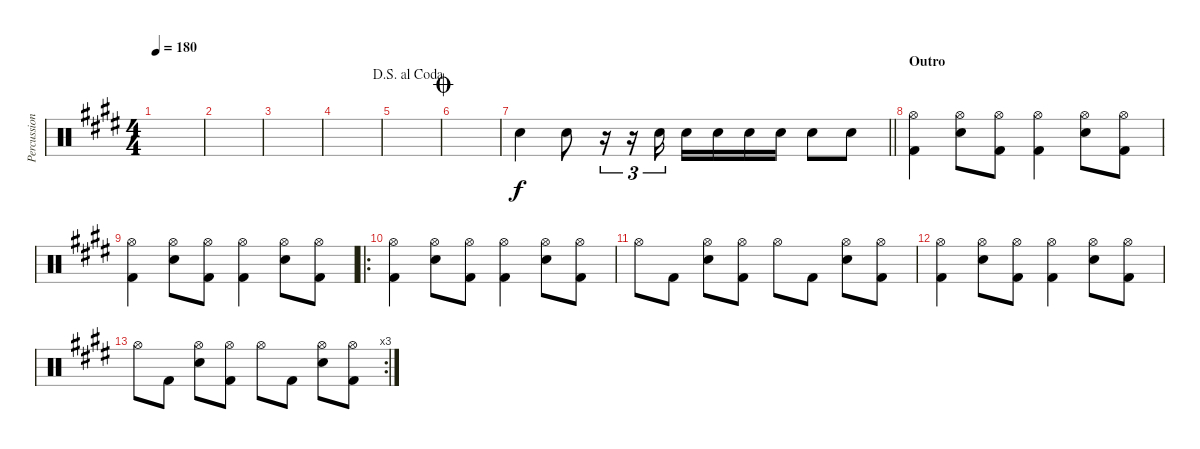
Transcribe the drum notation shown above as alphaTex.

\track ("Percussion" "Percussion") {instrument percussion}
\staff {score}
\articulation defaults
\ts (4 4)
\tempo 180
\clef neutral
\ks c#minor
|
|
|
|
\jump dalsegnoalcoda
|
\jump coda
|
\barLineRight lightlight "Snare (hit) 2".4 "Snare (hit) 2".8
r.16{tu (3 2)} r.16{tu (3 2)} "Snare (hit) 2".16{tu (3 2)} "Snare (hit) 2".16 "Snare (hit) 2".16 "Snare (hit) 2".16 "Snare (hit) 2".16 "Snare (hit) 2".8 "Snare (hit) 2".8 |
\section ("" "Outro")
("Hi-Hat (open)" "Kick (hit) 2").4 ("Hi-Hat (open)" "Snare (hit) 2").8 ("Hi-Hat (open)" "Kick (hit) 2").8 ("Hi-Hat (open)" "Kick (hit) 2").4 ("Hi-Hat (open)" "Snare (hit) 2").8 ("Hi-Hat (open)" "Kick (hit) 2").8 |
("Hi-Hat (open)" "Kick (hit) 2").4 ("Hi-Hat (open)" "Snare (hit) 2").8 ("Hi-Hat (open)" "Kick (hit) 2").8 ("Hi-Hat (open)" "Kick (hit) 2").4 ("Hi-Hat (open)" "Snare (hit) 2").8 ("Hi-Hat (open)" "Kick (hit) 2").8 |
\ro
("Hi-Hat (open)" "Kick (hit) 2").4 ("Hi-Hat (open)" "Snare (hit) 2").8 ("Hi-Hat (open)" "Kick (hit) 2").8 ("Hi-Hat (open)" "Kick (hit) 2").4 ("Hi-Hat (open)" "Snare (hit) 2").8 ("Hi-Hat (open)" "Kick (hit) 2").8 |
"Hi-Hat (open)".8 "Kick (hit) 2".8 ("Hi-Hat (open)" "Snare (hit) 2").8 ("Hi-Hat (open)" "Kick (hit) 2").8 "Hi-Hat (open)".8 "Kick (hit) 2".8 ("Hi-Hat (open)" "Snare (hit) 2").8 ("Hi-Hat (open)" "Kick (hit) 2").8 |
("Hi-Hat (open)" "Kick (hit) 2").4 ("Hi-Hat (open)" "Snare (hit) 2").8 ("Hi-Hat (open)" "Kick (hit) 2").8 ("Hi-Hat (open)" "Kick (hit) 2").4 ("Hi-Hat (open)" "Snare (hit) 2").8 ("Hi-Hat (open)" "Kick (hit) 2").8 |
\rc 3 "Hi-Hat (open)".8 "Kick (hit) 2".8
("Hi-Hat (open)" "Snare (hit) 2").8 ("Hi-Hat (open)" "Kick (hit) 2").8 "Hi-Hat (open)".8 "Kick (hit) 2".8 ("Hi-Hat (open)" "Snare (hit) 2").8 ("Hi-Hat (open)" "Kick (hit) 2").8
